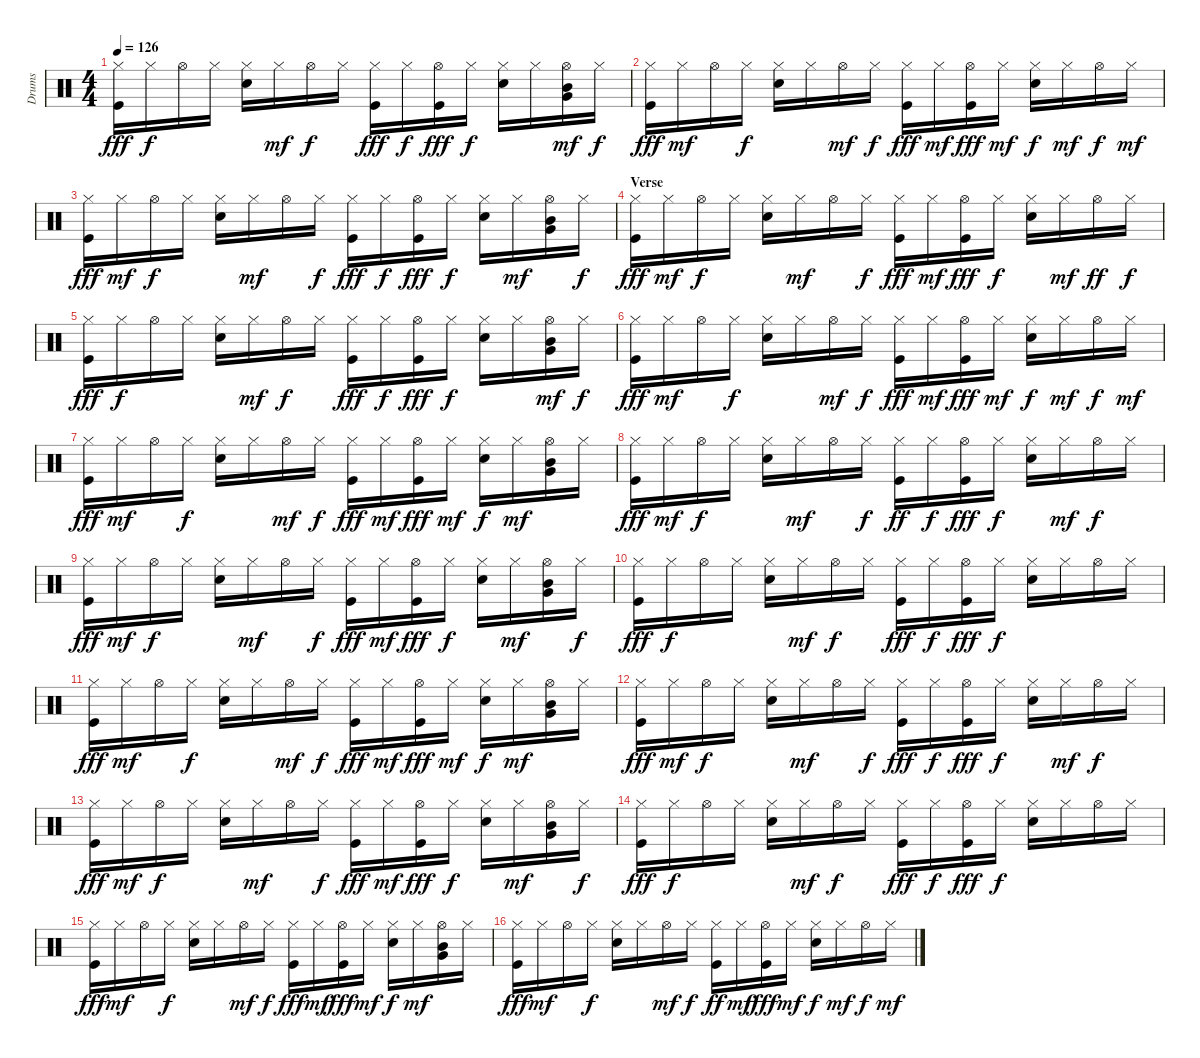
\track ("Drums" "Drums") {instrument percussion}
\staff {score}
\articulation defaults
\ts (4 4)
\tempo 126
\clef neutral
\ks c
("Kick (hit)" "Hi-Hat (closed)").16{dy fff} "Hi-Hat (closed)".16{dy f} "Hi-Hat (open)".16 "Hi-Hat (closed)".16 ("Electric Snare (hit)" "Hi-Hat (closed)").16 "Hi-Hat (closed)".16{dy mf} "Hi-Hat (open)".16{dy f} "Hi-Hat (closed)".16 ("Kick (hit)" "Hi-Hat (closed)").16{dy fff} "Hi-Hat (closed)".16{dy f} ("Kick (hit)" "Hi-Hat (open)").16{dy fff} "Hi-Hat (closed)".16{dy f} ("Electric Snare (hit)" "Hi-Hat (closed)").16 "Hi-Hat (closed)".16 ("Very Low Tom (hit)" "Hi-Hat (open)" "Mid Tom (hit)").16{dy mf} "Hi-Hat (closed)".16{dy f} |
("Kick (hit)" "Hi-Hat (closed)").16{dy fff} "Hi-Hat (closed)".16{dy mf} "Hi-Hat (open)".16 "Hi-Hat (closed)".16{dy f} ("Electric Snare (hit)" "Hi-Hat (closed)").16 "Hi-Hat (closed)".16 "Hi-Hat (open)".16{dy mf} "Hi-Hat (closed)".16{dy f} ("Kick (hit)" "Hi-Hat (closed)").16{dy fff} "Hi-Hat (closed)".16{dy mf} ("Kick (hit)" "Hi-Hat (open)").16{dy fff} "Hi-Hat (closed)".16{dy mf} ("Electric Snare (hit)" "Hi-Hat (closed)").16{dy f} "Hi-Hat (closed)".16{dy mf} "Hi-Hat (open)".16{dy f} "Hi-Hat (closed)".16{dy mf} |
("Kick (hit)" "Hi-Hat (closed)").16{dy fff} "Hi-Hat (closed)".16{dy mf} "Hi-Hat (open)".16{dy f} "Hi-Hat (closed)".16 ("Electric Snare (hit)" "Hi-Hat (closed)").16 "Hi-Hat (closed)".16{dy mf} "Hi-Hat (open)".16 "Hi-Hat (closed)".16{dy f} ("Kick (hit)" "Hi-Hat (closed)").16{dy fff} "Hi-Hat (closed)".16{dy f} ("Kick (hit)" "Hi-Hat (open)").16{dy fff} "Hi-Hat (closed)".16{dy f} ("Electric Snare (hit)" "Hi-Hat (closed)").16 "Hi-Hat (closed)".16{dy mf} ("Very Low Tom (hit)" "Hi-Hat (open)" "Mid Tom (hit)").16 "Hi-Hat (closed)".16{dy f} |
\section ("" "Verse")
("Kick (hit)" "Hi-Hat (closed)").16{dy fff} "Hi-Hat (closed)".16{dy mf} "Hi-Hat (open)".16{dy f} "Hi-Hat (closed)".16 ("Electric Snare (hit)" "Hi-Hat (closed)").16 "Hi-Hat (closed)".16{dy mf} "Hi-Hat (open)".16 "Hi-Hat (closed)".16{dy f} ("Kick (hit)" "Hi-Hat (closed)").16{dy fff} "Hi-Hat (closed)".16{dy mf} ("Kick (hit)" "Hi-Hat (open)").16{dy fff} "Hi-Hat (closed)".16{dy f} ("Electric Snare (hit)" "Hi-Hat (closed)").16 "Hi-Hat (closed)".16{dy mf} "Hi-Hat (open)".16{dy ff} "Hi-Hat (closed)".16{dy f} |
("Kick (hit)" "Hi-Hat (closed)").16{dy fff} "Hi-Hat (closed)".16{dy f} "Hi-Hat (open)".16 "Hi-Hat (closed)".16 ("Electric Snare (hit)" "Hi-Hat (closed)").16 "Hi-Hat (closed)".16{dy mf} "Hi-Hat (open)".16{dy f} "Hi-Hat (closed)".16 ("Kick (hit)" "Hi-Hat (closed)").16{dy fff} "Hi-Hat (closed)".16{dy f} ("Kick (hit)" "Hi-Hat (open)").16{dy fff} "Hi-Hat (closed)".16{dy f} ("Electric Snare (hit)" "Hi-Hat (closed)").16 "Hi-Hat (closed)".16 ("Very Low Tom (hit)" "Hi-Hat (open)" "Mid Tom (hit)").16{dy mf} "Hi-Hat (closed)".16{dy f} |
("Kick (hit)" "Hi-Hat (closed)").16{dy fff} "Hi-Hat (closed)".16{dy mf} "Hi-Hat (open)".16 "Hi-Hat (closed)".16{dy f} ("Electric Snare (hit)" "Hi-Hat (closed)").16 "Hi-Hat (closed)".16 "Hi-Hat (open)".16{dy mf} "Hi-Hat (closed)".16{dy f} ("Kick (hit)" "Hi-Hat (closed)").16{dy fff} "Hi-Hat (closed)".16{dy mf} ("Kick (hit)" "Hi-Hat (open)").16{dy fff} "Hi-Hat (closed)".16{dy mf} ("Electric Snare (hit)" "Hi-Hat (closed)").16{dy f} "Hi-Hat (closed)".16{dy mf} "Hi-Hat (open)".16{dy f} "Hi-Hat (closed)".16{dy mf} |
("Kick (hit)" "Hi-Hat (closed)").16{dy fff} "Hi-Hat (closed)".16{dy mf} "Hi-Hat (open)".16 "Hi-Hat (closed)".16{dy f} ("Electric Snare (hit)" "Hi-Hat (closed)").16 "Hi-Hat (closed)".16 "Hi-Hat (open)".16{dy mf} "Hi-Hat (closed)".16{dy f} ("Kick (hit)" "Hi-Hat (closed)").16{dy fff} "Hi-Hat (closed)".16{dy mf} ("Kick (hit)" "Hi-Hat (open)").16{dy fff} "Hi-Hat (closed)".16{dy mf} ("Electric Snare (hit)" "Hi-Hat (closed)").16{dy f} "Hi-Hat (closed)".16{dy mf} ("Very Low Tom (hit)" "Hi-Hat (open)" "Mid Tom (hit)").16 "Hi-Hat (closed)".16 |
("Kick (hit)" "Hi-Hat (closed)").16{dy fff} "Hi-Hat (closed)".16{dy mf} "Hi-Hat (open)".16{dy f} "Hi-Hat (closed)".16 ("Electric Snare (hit)" "Hi-Hat (closed)").16 "Hi-Hat (closed)".16{dy mf} "Hi-Hat (open)".16 "Hi-Hat (closed)".16{dy f} ("Kick (hit)" "Hi-Hat (closed)").16{dy ff} "Hi-Hat (closed)".16{dy f} ("Kick (hit)" "Hi-Hat (open)").16{dy fff} "Hi-Hat (closed)".16{dy f} ("Electric Snare (hit)" "Hi-Hat (closed)").16 "Hi-Hat (closed)".16{dy mf} "Hi-Hat (open)".16{dy f} "Hi-Hat (closed)".16 |
("Kick (hit)" "Hi-Hat (closed)").16{dy fff} "Hi-Hat (closed)".16{dy mf} "Hi-Hat (open)".16{dy f} "Hi-Hat (closed)".16 ("Electric Snare (hit)" "Hi-Hat (closed)").16 "Hi-Hat (closed)".16{dy mf} "Hi-Hat (open)".16 "Hi-Hat (closed)".16{dy f} ("Kick (hit)" "Hi-Hat (closed)").16{dy fff} "Hi-Hat (closed)".16{dy mf} ("Kick (hit)" "Hi-Hat (open)").16{dy fff} "Hi-Hat (closed)".16{dy f} ("Electric Snare (hit)" "Hi-Hat (closed)").16 "Hi-Hat (closed)".16{dy mf} ("Very Low Tom (hit)" "Hi-Hat (open)" "Mid Tom (hit)").16 "Hi-Hat (closed)".16{dy f} |
("Kick (hit)" "Hi-Hat (closed)").16{dy fff} "Hi-Hat (closed)".16{dy f} "Hi-Hat (open)".16 "Hi-Hat (closed)".16 ("Electric Snare (hit)" "Hi-Hat (closed)").16 "Hi-Hat (closed)".16{dy mf} "Hi-Hat (open)".16{dy f} "Hi-Hat (closed)".16 ("Kick (hit)" "Hi-Hat (closed)").16{dy fff} "Hi-Hat (closed)".16{dy f} ("Kick (hit)" "Hi-Hat (open)").16{dy fff} "Hi-Hat (closed)".16{dy f} ("Electric Snare (hit)" "Hi-Hat (closed)").16 "Hi-Hat (closed)".16 "Hi-Hat (open)".16 "Hi-Hat (closed)".16 |
("Kick (hit)" "Hi-Hat (closed)").16{dy fff} "Hi-Hat (closed)".16{dy mf} "Hi-Hat (open)".16 "Hi-Hat (closed)".16{dy f} ("Electric Snare (hit)" "Hi-Hat (closed)").16 "Hi-Hat (closed)".16 "Hi-Hat (open)".16{dy mf} "Hi-Hat (closed)".16{dy f} ("Kick (hit)" "Hi-Hat (closed)").16{dy fff} "Hi-Hat (closed)".16{dy mf} ("Kick (hit)" "Hi-Hat (open)").16{dy fff} "Hi-Hat (closed)".16{dy mf} ("Electric Snare (hit)" "Hi-Hat (closed)").16{dy f} "Hi-Hat (closed)".16{dy mf} ("Very Low Tom (hit)" "Hi-Hat (open)" "Mid Tom (hit)").16 "Hi-Hat (closed)".16 |
("Kick (hit)" "Hi-Hat (closed)").16{dy fff} "Hi-Hat (closed)".16{dy mf} "Hi-Hat (open)".16{dy f} "Hi-Hat (closed)".16 ("Electric Snare (hit)" "Hi-Hat (closed)").16 "Hi-Hat (closed)".16{dy mf} "Hi-Hat (open)".16 "Hi-Hat (closed)".16{dy f} ("Kick (hit)" "Hi-Hat (closed)").16{dy fff} "Hi-Hat (closed)".16{dy f} ("Kick (hit)" "Hi-Hat (open)").16{dy fff} "Hi-Hat (closed)".16{dy f} ("Electric Snare (hit)" "Hi-Hat (closed)").16 "Hi-Hat (closed)".16{dy mf} "Hi-Hat (open)".16{dy f} "Hi-Hat (closed)".16 |
("Kick (hit)" "Hi-Hat (closed)").16{dy fff} "Hi-Hat (closed)".16{dy mf} "Hi-Hat (open)".16{dy f} "Hi-Hat (closed)".16 ("Electric Snare (hit)" "Hi-Hat (closed)").16 "Hi-Hat (closed)".16{dy mf} "Hi-Hat (open)".16 "Hi-Hat (closed)".16{dy f} ("Kick (hit)" "Hi-Hat (closed)").16{dy fff} "Hi-Hat (closed)".16{dy mf} ("Kick (hit)" "Hi-Hat (open)").16{dy fff} "Hi-Hat (closed)".16{dy f} ("Electric Snare (hit)" "Hi-Hat (closed)").16 "Hi-Hat (closed)".16{dy mf} ("Very Low Tom (hit)" "Hi-Hat (open)" "Mid Tom (hit)").16 "Hi-Hat (closed)".16{dy f} |
("Kick (hit)" "Hi-Hat (closed)").16{dy fff} "Hi-Hat (closed)".16{dy f} "Hi-Hat (open)".16 "Hi-Hat (closed)".16 ("Electric Snare (hit)" "Hi-Hat (closed)").16 "Hi-Hat (closed)".16{dy mf} "Hi-Hat (open)".16{dy f} "Hi-Hat (closed)".16 ("Kick (hit)" "Hi-Hat (closed)").16{dy fff} "Hi-Hat (closed)".16{dy f} ("Kick (hit)" "Hi-Hat (open)").16{dy fff} "Hi-Hat (closed)".16{dy f} ("Electric Snare (hit)" "Hi-Hat (closed)").16 "Hi-Hat (closed)".16 "Hi-Hat (open)".16 "Hi-Hat (closed)".16 |
("Kick (hit)" "Hi-Hat (closed)").16{dy fff} "Hi-Hat (closed)".16{dy mf} "Hi-Hat (open)".16 "Hi-Hat (closed)".16{dy f} ("Electric Snare (hit)" "Hi-Hat (closed)").16 "Hi-Hat (closed)".16 "Hi-Hat (open)".16{dy mf} "Hi-Hat (closed)".16{dy f} ("Kick (hit)" "Hi-Hat (closed)").16{dy fff} "Hi-Hat (closed)".16{dy mf} ("Kick (hit)" "Hi-Hat (open)").16{dy fff} "Hi-Hat (closed)".16{dy mf} ("Electric Snare (hit)" "Hi-Hat (closed)").16{dy f} "Hi-Hat (closed)".16{dy mf} ("Very Low Tom (hit)" "Hi-Hat (open)" "Mid Tom (hit)").16 "Hi-Hat (closed)".16 |
("Kick (hit)" "Hi-Hat (closed)").16{dy fff} "Hi-Hat (closed)".16{dy mf} "Hi-Hat (open)".16 "Hi-Hat (closed)".16{dy f} ("Electric Snare (hit)" "Hi-Hat (closed)").16 "Hi-Hat (closed)".16 "Hi-Hat (open)".16{dy mf} "Hi-Hat (closed)".16{dy f} ("Kick (hit)" "Hi-Hat (closed)").16{dy ff} "Hi-Hat (closed)".16{dy mf} ("Kick (hit)" "Hi-Hat (open)").16{dy fff} "Hi-Hat (closed)".16{dy mf} ("Electric Snare (hit)" "Hi-Hat (closed)").16{dy f} "Hi-Hat (closed)".16{dy mf} "Hi-Hat (open)".16{dy f} "Hi-Hat (closed)".16{dy mf}
